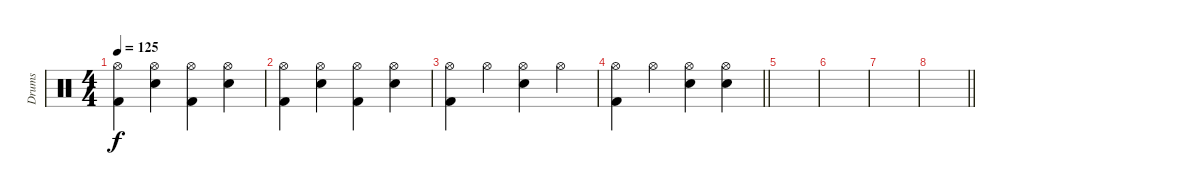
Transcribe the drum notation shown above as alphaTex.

\track ("Drums" "Drums") {instrument percussion}
\staff {score}
\articulation defaults
\ts (4 4)
\tempo 125
\clef neutral
\ks c
("Kick (hit) 2" "Hi-Hat (open)").4{dy f} ("Snare (hit) 2" "Hi-Hat (open)").4 ("Kick (hit) 2" "Hi-Hat (open)").4 ("Snare (hit) 2" "Hi-Hat (open)").4 |
("Kick (hit) 2" "Hi-Hat (open)").4 ("Snare (hit) 2" "Hi-Hat (open)").4 ("Kick (hit) 2" "Hi-Hat (open)").4 ("Snare (hit) 2" "Hi-Hat (open)").4 |
("Kick (hit) 2" "Hi-Hat (open)").4 "Hi-Hat (open)".4 ("Snare (hit) 2" "Hi-Hat (open)").4 "Hi-Hat (open)".4 |
\barLineRight lightlight
("Kick (hit) 2" "Hi-Hat (open)").4 "Hi-Hat (open)".4 ("Snare (hit) 2" "Hi-Hat (open)").4 ("Snare (hit) 2" "Hi-Hat (open)").4 |
|
|
|
\barLineRight lightlight
